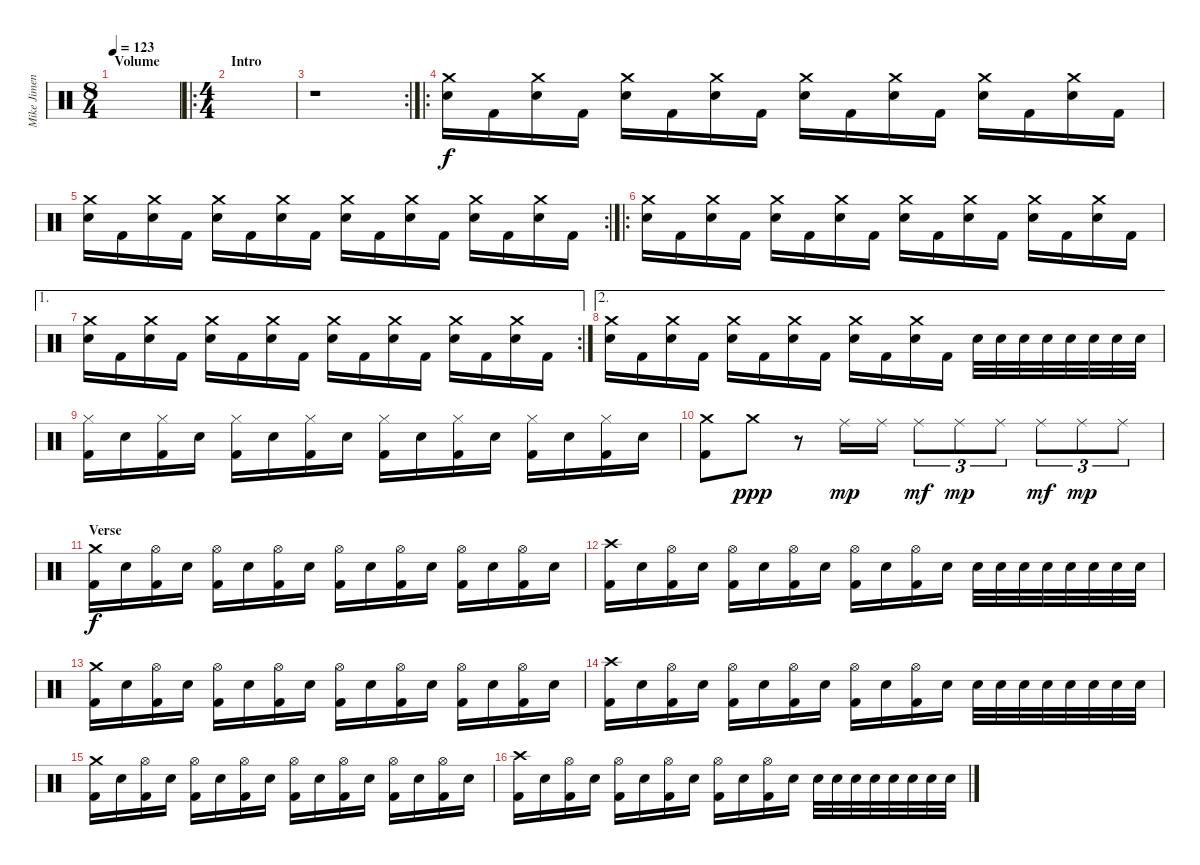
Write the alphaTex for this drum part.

\track ("Mike Jimenez Drums" "Mike Jimen") {instrument percussion}
\staff {score}
\articulation defaults
\ts (8 4)
\section ("" "Volume")
\tempo 123
\clef neutral
\ks c
|
\ro
\ts (4 4)
\section ("" "Intro")
|
\rc 2
r.1 |
\ro
("Crash medium (hit)" "Electric Snare (hit)").16 "Kick (hit) 2".16 ("Crash medium (hit)" "Electric Snare (hit)").16 "Kick (hit) 2".16 ("Crash medium (hit)" "Electric Snare (hit)").16 "Kick (hit) 2".16 ("Crash medium (hit)" "Electric Snare (hit)").16 "Kick (hit) 2".16 ("Crash medium (hit)" "Electric Snare (hit)").16 "Kick (hit) 2".16 ("Crash medium (hit)" "Electric Snare (hit)").16 "Kick (hit) 2".16 ("Crash medium (hit)" "Electric Snare (hit)").16 "Kick (hit) 2".16 ("Crash medium (hit)" "Electric Snare (hit)").16 "Kick (hit) 2".16 |
\rc 2
("Crash medium (hit)" "Electric Snare (hit)").16 "Kick (hit) 2".16 ("Crash medium (hit)" "Electric Snare (hit)").16 "Kick (hit) 2".16 ("Crash medium (hit)" "Electric Snare (hit)").16 "Kick (hit) 2".16 ("Crash medium (hit)" "Electric Snare (hit)").16 "Kick (hit) 2".16 ("Crash medium (hit)" "Electric Snare (hit)").16 "Kick (hit) 2".16 ("Crash medium (hit)" "Electric Snare (hit)").16 "Kick (hit) 2".16 ("Crash medium (hit)" "Electric Snare (hit)").16 "Kick (hit) 2".16 ("Crash medium (hit)" "Electric Snare (hit)").16 "Kick (hit) 2".16 |
\ro
("Crash medium (hit)" "Electric Snare (hit)").16 "Kick (hit) 2".16 ("Crash medium (hit)" "Electric Snare (hit)").16 "Kick (hit) 2".16 ("Crash medium (hit)" "Electric Snare (hit)").16 "Kick (hit) 2".16 ("Crash medium (hit)" "Electric Snare (hit)").16 "Kick (hit) 2".16 ("Crash medium (hit)" "Electric Snare (hit)").16 "Kick (hit) 2".16 ("Crash medium (hit)" "Electric Snare (hit)").16 "Kick (hit) 2".16 ("Crash medium (hit)" "Electric Snare (hit)").16 "Kick (hit) 2".16 ("Crash medium (hit)" "Electric Snare (hit)").16 "Kick (hit) 2".16 |
\ae 1
\rc 2
("Crash medium (hit)" "Electric Snare (hit)").16 "Kick (hit) 2".16 ("Crash medium (hit)" "Electric Snare (hit)").16 "Kick (hit) 2".16 ("Crash medium (hit)" "Electric Snare (hit)").16 "Kick (hit) 2".16 ("Crash medium (hit)" "Electric Snare (hit)").16 "Kick (hit) 2".16 ("Crash medium (hit)" "Electric Snare (hit)").16 "Kick (hit) 2".16 ("Crash medium (hit)" "Electric Snare (hit)").16 "Kick (hit) 2".16 ("Crash medium (hit)" "Electric Snare (hit)").16 "Kick (hit) 2".16 ("Crash medium (hit)" "Electric Snare (hit)").16 "Kick (hit) 2".16 |
\ae 2
("Crash medium (hit)" "Electric Snare (hit)").16 "Kick (hit) 2".16 ("Crash medium (hit)" "Electric Snare (hit)").16 "Kick (hit) 2".16 ("Crash medium (hit)" "Electric Snare (hit)").16 "Kick (hit) 2".16 ("Crash medium (hit)" "Electric Snare (hit)").16 "Kick (hit) 2".16 ("Crash medium (hit)" "Electric Snare (hit)").16 "Kick (hit) 2".16 ("Crash medium (hit)" "Electric Snare (hit)").16 "Kick (hit) 2".16 "Electric Snare (hit)".32 "Electric Snare (hit)".32 "Electric Snare (hit)".32 "Electric Snare (hit)".32 "Electric Snare (hit)".32 "Electric Snare (hit)".32 "Electric Snare (hit)".32 "Electric Snare (hit)".32 |
("Hi-Hat (closed)" "Kick (hit) 2").16 "Electric Snare (hit)".16 ("Hi-Hat (closed)" "Kick (hit) 2").16 "Electric Snare (hit)".16 ("Hi-Hat (closed)" "Kick (hit) 2").16 "Electric Snare (hit)".16 ("Hi-Hat (closed)" "Kick (hit) 2").16 "Electric Snare (hit)".16 ("Hi-Hat (closed)" "Kick (hit) 2").16 "Electric Snare (hit)".16 ("Hi-Hat (closed)" "Kick (hit) 2").16 "Electric Snare (hit)".16 ("Hi-Hat (closed)" "Kick (hit) 2").16 "Electric Snare (hit)".16 ("Hi-Hat (closed)" "Kick (hit) 2").16 "Electric Snare (hit)".16 |
("Crash medium (hit)" "Kick (hit) 2").8 "Crash medium (hit)".8{dy ppp} r.8 "Ride (middle)".16{dy mp} "Ride (middle)".16 "Ride (middle)".8{tu (3 2) dy mf} "Ride (middle)".8{tu (3 2) dy mp} "Ride (middle)".8{tu (3 2)} "Ride (middle)".8{tu (3 2) dy mf} "Ride (middle)".8{tu (3 2) dy mp} "Ride (middle)".8{tu (3 2)} |
\section ("" "Verse")
("Crash medium (hit)" "Kick (hit) 2").16{dy f} "Electric Snare (hit)".16 ("Hi-Hat (open)" "Kick (hit) 2").16 "Electric Snare (hit)".16 ("Hi-Hat (open)" "Kick (hit) 2").16 "Electric Snare (hit)".16 ("Hi-Hat (open)" "Kick (hit) 2").16 "Electric Snare (hit)".16 ("Hi-Hat (open)" "Kick (hit) 2").16 "Electric Snare (hit)".16 ("Hi-Hat (open)" "Kick (hit) 2").16 "Electric Snare (hit)".16 ("Hi-Hat (open)" "Kick (hit) 2").16 "Electric Snare (hit)".16 ("Hi-Hat (open)" "Kick (hit) 2").16 "Electric Snare (hit)".16 |
("Crash high (hit)" "Kick (hit) 2").16 "Electric Snare (hit)".16 ("Hi-Hat (open)" "Kick (hit) 2").16 "Electric Snare (hit)".16 ("Hi-Hat (open)" "Kick (hit) 2").16 "Electric Snare (hit)".16 ("Hi-Hat (open)" "Kick (hit) 2").16 "Electric Snare (hit)".16 ("Hi-Hat (open)" "Kick (hit) 2").16 "Electric Snare (hit)".16 ("Hi-Hat (open)" "Kick (hit) 2").16 "Electric Snare (hit)".16 "Electric Snare (hit)".32 "Electric Snare (hit)".32 "Electric Snare (hit)".32 "Electric Snare (hit)".32 "Electric Snare (hit)".32 "Electric Snare (hit)".32 "Electric Snare (hit)".32 "Electric Snare (hit)".32 |
("Crash medium (hit)" "Kick (hit) 2").16 "Electric Snare (hit)".16 ("Hi-Hat (open)" "Kick (hit) 2").16 "Electric Snare (hit)".16 ("Hi-Hat (open)" "Kick (hit) 2").16 "Electric Snare (hit)".16 ("Hi-Hat (open)" "Kick (hit) 2").16 "Electric Snare (hit)".16 ("Hi-Hat (open)" "Kick (hit) 2").16 "Electric Snare (hit)".16 ("Hi-Hat (open)" "Kick (hit) 2").16 "Electric Snare (hit)".16 ("Hi-Hat (open)" "Kick (hit) 2").16 "Electric Snare (hit)".16 ("Hi-Hat (open)" "Kick (hit) 2").16 "Electric Snare (hit)".16 |
("Crash high (hit)" "Kick (hit) 2").16 "Electric Snare (hit)".16 ("Hi-Hat (open)" "Kick (hit) 2").16 "Electric Snare (hit)".16 ("Hi-Hat (open)" "Kick (hit) 2").16 "Electric Snare (hit)".16 ("Hi-Hat (open)" "Kick (hit) 2").16 "Electric Snare (hit)".16 ("Hi-Hat (open)" "Kick (hit) 2").16 "Electric Snare (hit)".16 ("Hi-Hat (open)" "Kick (hit) 2").16 "Electric Snare (hit)".16 "Electric Snare (hit)".32 "Electric Snare (hit)".32 "Electric Snare (hit)".32 "Electric Snare (hit)".32 "Electric Snare (hit)".32 "Electric Snare (hit)".32 "Electric Snare (hit)".32 "Electric Snare (hit)".32 |
("Crash medium (hit)" "Kick (hit) 2").16 "Electric Snare (hit)".16 ("Hi-Hat (open)" "Kick (hit) 2").16 "Electric Snare (hit)".16 ("Hi-Hat (open)" "Kick (hit) 2").16 "Electric Snare (hit)".16 ("Hi-Hat (open)" "Kick (hit) 2").16 "Electric Snare (hit)".16 ("Hi-Hat (open)" "Kick (hit) 2").16 "Electric Snare (hit)".16 ("Hi-Hat (open)" "Kick (hit) 2").16 "Electric Snare (hit)".16 ("Hi-Hat (open)" "Kick (hit) 2").16 "Electric Snare (hit)".16 ("Hi-Hat (open)" "Kick (hit) 2").16 "Electric Snare (hit)".16 |
("Crash high (hit)" "Kick (hit) 2").16 "Electric Snare (hit)".16 ("Hi-Hat (open)" "Kick (hit) 2").16 "Electric Snare (hit)".16 ("Hi-Hat (open)" "Kick (hit) 2").16 "Electric Snare (hit)".16 ("Hi-Hat (open)" "Kick (hit) 2").16 "Electric Snare (hit)".16 ("Hi-Hat (open)" "Kick (hit) 2").16 "Electric Snare (hit)".16 ("Hi-Hat (open)" "Kick (hit) 2").16 "Electric Snare (hit)".16 "Electric Snare (hit)".32 "Electric Snare (hit)".32 "Electric Snare (hit)".32 "Electric Snare (hit)".32 "Electric Snare (hit)".32 "Electric Snare (hit)".32 "Electric Snare (hit)".32 "Electric Snare (hit)".32
